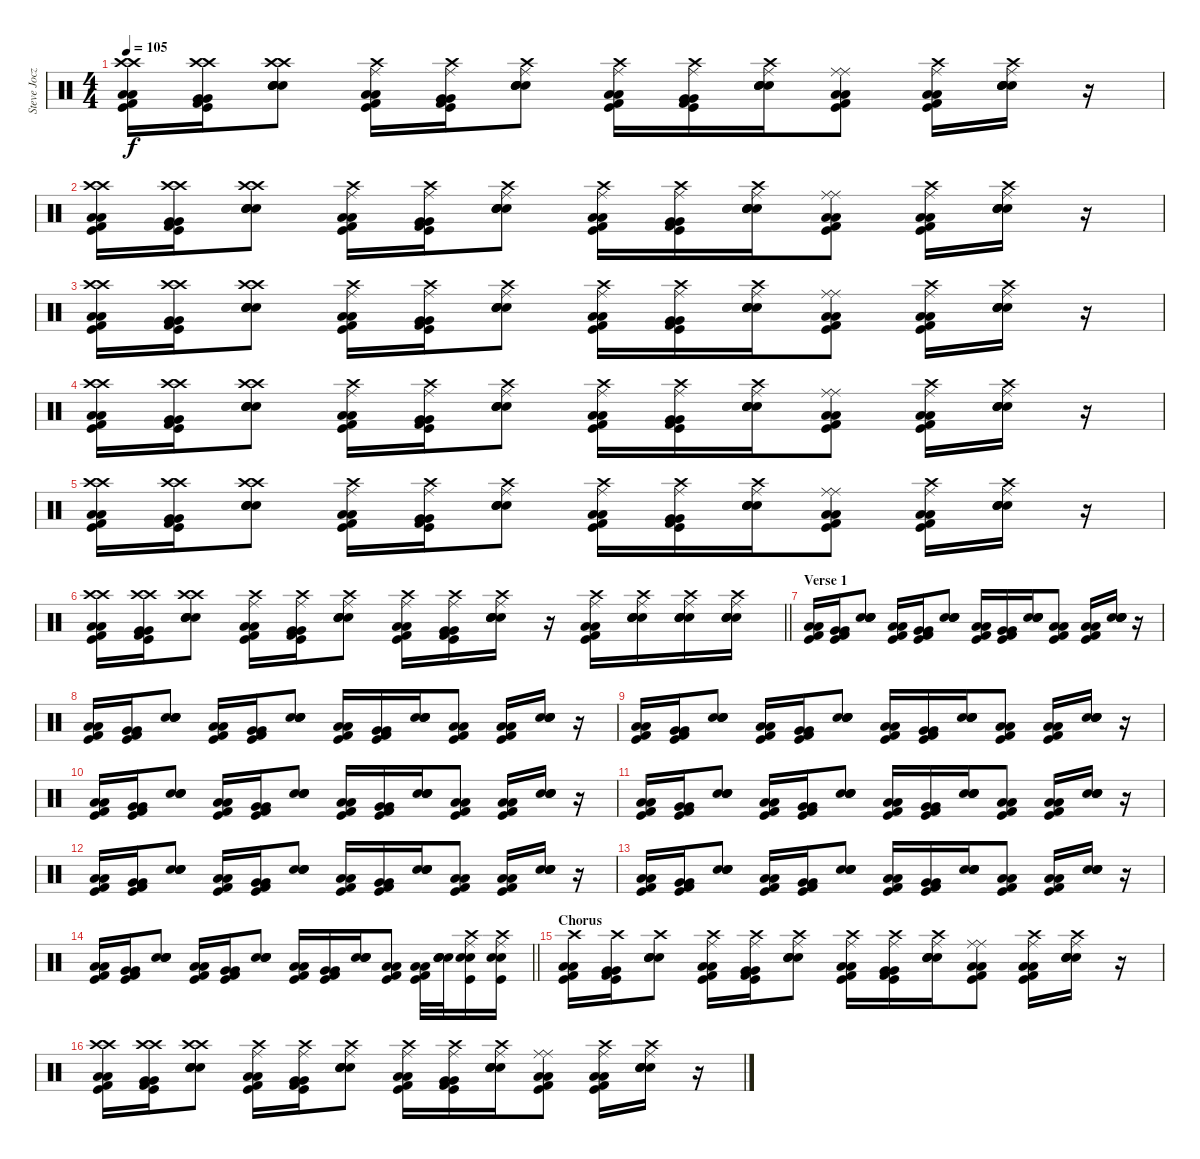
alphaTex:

\track ("Steve Jocz" "Steve Jocz") {instrument percussion}
\staff {score}
\articulation defaults
\ts (4 4)
\tempo 105
\clef neutral
\ks c
("Low Floor Tom (hit)" "Crash high (hit)" "Low Floor Tom (hit)" "Kick (hit)" "Crash high (hit)" "Kick (hit) 2").16{dy f} ("Very Low Tom (hit)" "Crash high (hit)" "Very Low Tom (hit)" "Kick (hit)" "Crash high (hit)" "Kick (hit) 2").16 ("Snare (hit) 2" "Crash high (hit)" "Snare (hit) 2" "Electric Snare (hit)" "Crash high (hit)" "Electric Snare (hit)").8 ("Low Floor Tom (hit)" "Ride (middle)" "Low Floor Tom (hit)" "Kick (hit)" "Crash high (hit)" "Kick (hit) 2").16 ("Very Low Tom (hit)" "Ride (middle)" "Very Low Tom (hit)" "Kick (hit)" "Crash high (hit)" "Kick (hit) 2").16 ("Snare (hit) 2" "Ride (middle)" "Snare (hit) 2" "Electric Snare (hit)" "Crash high (hit)" "Electric Snare (hit)").8 ("Low Floor Tom (hit)" "Ride (middle)" "Low Floor Tom (hit)" "Kick (hit)" "Crash high (hit)" "Kick (hit) 2").16 ("Very Low Tom (hit)" "Ride (middle)" "Very Low Tom (hit)" "Kick (hit)" "Crash high (hit)" "Kick (hit) 2").16 ("Snare (hit) 2" "Ride (middle)" "Snare (hit) 2" "Electric Snare (hit)" "Crash high (hit)" "Electric Snare (hit)").16 ("Low Floor Tom (hit)" "Ride (middle)" "Low Floor Tom (hit)" "Kick (hit)" "Ride (middle)" "Kick (hit) 2").8 ("Low Floor Tom (hit)" "Ride (middle)" "Low Floor Tom (hit)" "Kick (hit)" "Crash high (hit)" "Kick (hit) 2").16 ("Snare (hit) 2" "Ride (middle)" "Snare (hit) 2" "Electric Snare (hit)" "Crash high (hit)" "Electric Snare (hit)").16 r.16 |
("Low Floor Tom (hit)" "Crash high (hit)" "Low Floor Tom (hit)" "Kick (hit)" "Crash high (hit)" "Kick (hit) 2").16 ("Very Low Tom (hit)" "Crash high (hit)" "Very Low Tom (hit)" "Kick (hit)" "Crash high (hit)" "Kick (hit) 2").16 ("Snare (hit) 2" "Crash high (hit)" "Snare (hit) 2" "Electric Snare (hit)" "Crash high (hit)" "Electric Snare (hit)").8 ("Low Floor Tom (hit)" "Ride (middle)" "Low Floor Tom (hit)" "Kick (hit)" "Crash high (hit)" "Kick (hit) 2").16 ("Very Low Tom (hit)" "Ride (middle)" "Very Low Tom (hit)" "Kick (hit)" "Crash high (hit)" "Kick (hit) 2").16 ("Snare (hit) 2" "Ride (middle)" "Snare (hit) 2" "Electric Snare (hit)" "Crash high (hit)" "Electric Snare (hit)").8 ("Low Floor Tom (hit)" "Ride (middle)" "Low Floor Tom (hit)" "Kick (hit)" "Crash high (hit)" "Kick (hit) 2").16 ("Very Low Tom (hit)" "Ride (middle)" "Very Low Tom (hit)" "Kick (hit)" "Crash high (hit)" "Kick (hit) 2").16 ("Snare (hit) 2" "Ride (middle)" "Snare (hit) 2" "Electric Snare (hit)" "Crash high (hit)" "Electric Snare (hit)").16 ("Low Floor Tom (hit)" "Ride (middle)" "Low Floor Tom (hit)" "Kick (hit)" "Ride (middle)" "Kick (hit) 2").8 ("Low Floor Tom (hit)" "Ride (middle)" "Low Floor Tom (hit)" "Kick (hit)" "Crash high (hit)" "Kick (hit) 2").16 ("Snare (hit) 2" "Ride (middle)" "Snare (hit) 2" "Electric Snare (hit)" "Crash high (hit)" "Electric Snare (hit)").16 r.16 |
("Low Floor Tom (hit)" "Crash high (hit)" "Low Floor Tom (hit)" "Kick (hit)" "Crash high (hit)" "Kick (hit) 2").16 ("Very Low Tom (hit)" "Crash high (hit)" "Very Low Tom (hit)" "Kick (hit)" "Crash high (hit)" "Kick (hit) 2").16 ("Snare (hit) 2" "Crash high (hit)" "Snare (hit) 2" "Electric Snare (hit)" "Crash high (hit)" "Electric Snare (hit)").8 ("Low Floor Tom (hit)" "Ride (middle)" "Low Floor Tom (hit)" "Kick (hit)" "Crash high (hit)" "Kick (hit) 2").16 ("Very Low Tom (hit)" "Ride (middle)" "Very Low Tom (hit)" "Kick (hit)" "Crash high (hit)" "Kick (hit) 2").16 ("Snare (hit) 2" "Ride (middle)" "Snare (hit) 2" "Electric Snare (hit)" "Crash high (hit)" "Electric Snare (hit)").8 ("Low Floor Tom (hit)" "Ride (middle)" "Low Floor Tom (hit)" "Kick (hit)" "Crash high (hit)" "Kick (hit) 2").16 ("Very Low Tom (hit)" "Ride (middle)" "Very Low Tom (hit)" "Kick (hit)" "Crash high (hit)" "Kick (hit) 2").16 ("Snare (hit) 2" "Ride (middle)" "Snare (hit) 2" "Electric Snare (hit)" "Crash high (hit)" "Electric Snare (hit)").16 ("Low Floor Tom (hit)" "Ride (middle)" "Low Floor Tom (hit)" "Kick (hit)" "Ride (middle)" "Kick (hit) 2").8 ("Low Floor Tom (hit)" "Ride (middle)" "Low Floor Tom (hit)" "Kick (hit)" "Crash high (hit)" "Kick (hit) 2").16 ("Snare (hit) 2" "Ride (middle)" "Snare (hit) 2" "Electric Snare (hit)" "Crash high (hit)" "Electric Snare (hit)").16 r.16 |
("Low Floor Tom (hit)" "Crash high (hit)" "Low Floor Tom (hit)" "Kick (hit)" "Crash high (hit)" "Kick (hit) 2").16 ("Very Low Tom (hit)" "Crash high (hit)" "Very Low Tom (hit)" "Kick (hit)" "Crash high (hit)" "Kick (hit) 2").16 ("Snare (hit) 2" "Crash high (hit)" "Snare (hit) 2" "Electric Snare (hit)" "Crash high (hit)" "Electric Snare (hit)").8 ("Low Floor Tom (hit)" "Ride (middle)" "Low Floor Tom (hit)" "Kick (hit)" "Crash high (hit)" "Kick (hit) 2").16 ("Very Low Tom (hit)" "Ride (middle)" "Very Low Tom (hit)" "Kick (hit)" "Crash high (hit)" "Kick (hit) 2").16 ("Snare (hit) 2" "Ride (middle)" "Snare (hit) 2" "Electric Snare (hit)" "Crash high (hit)" "Electric Snare (hit)").8 ("Low Floor Tom (hit)" "Ride (middle)" "Low Floor Tom (hit)" "Kick (hit)" "Crash high (hit)" "Kick (hit) 2").16 ("Very Low Tom (hit)" "Ride (middle)" "Very Low Tom (hit)" "Kick (hit)" "Crash high (hit)" "Kick (hit) 2").16 ("Snare (hit) 2" "Ride (middle)" "Snare (hit) 2" "Electric Snare (hit)" "Crash high (hit)" "Electric Snare (hit)").16 ("Low Floor Tom (hit)" "Ride (middle)" "Low Floor Tom (hit)" "Kick (hit)" "Ride (middle)" "Kick (hit) 2").8 ("Low Floor Tom (hit)" "Ride (middle)" "Low Floor Tom (hit)" "Kick (hit)" "Crash high (hit)" "Kick (hit) 2").16 ("Snare (hit) 2" "Ride (middle)" "Snare (hit) 2" "Electric Snare (hit)" "Crash high (hit)" "Electric Snare (hit)").16 r.16 |
("Low Floor Tom (hit)" "Crash high (hit)" "Low Floor Tom (hit)" "Kick (hit)" "Crash high (hit)" "Kick (hit) 2").16 ("Very Low Tom (hit)" "Crash high (hit)" "Very Low Tom (hit)" "Kick (hit)" "Crash high (hit)" "Kick (hit) 2").16 ("Snare (hit) 2" "Crash high (hit)" "Snare (hit) 2" "Electric Snare (hit)" "Crash high (hit)" "Electric Snare (hit)").8 ("Low Floor Tom (hit)" "Ride (middle)" "Low Floor Tom (hit)" "Kick (hit)" "Crash high (hit)" "Kick (hit) 2").16 ("Very Low Tom (hit)" "Ride (middle)" "Very Low Tom (hit)" "Kick (hit)" "Crash high (hit)" "Kick (hit) 2").16 ("Snare (hit) 2" "Ride (middle)" "Snare (hit) 2" "Electric Snare (hit)" "Crash high (hit)" "Electric Snare (hit)").8 ("Low Floor Tom (hit)" "Ride (middle)" "Low Floor Tom (hit)" "Kick (hit)" "Crash high (hit)" "Kick (hit) 2").16 ("Very Low Tom (hit)" "Ride (middle)" "Very Low Tom (hit)" "Kick (hit)" "Crash high (hit)" "Kick (hit) 2").16 ("Snare (hit) 2" "Ride (middle)" "Snare (hit) 2" "Electric Snare (hit)" "Crash high (hit)" "Electric Snare (hit)").16 ("Low Floor Tom (hit)" "Ride (middle)" "Low Floor Tom (hit)" "Kick (hit)" "Ride (middle)" "Kick (hit) 2").8 ("Low Floor Tom (hit)" "Ride (middle)" "Low Floor Tom (hit)" "Kick (hit)" "Crash high (hit)" "Kick (hit) 2").16 ("Snare (hit) 2" "Ride (middle)" "Snare (hit) 2" "Electric Snare (hit)" "Crash high (hit)" "Electric Snare (hit)").16 r.16 |
\barLineRight lightlight
("Low Floor Tom (hit)" "Crash high (hit)" "Low Floor Tom (hit)" "Kick (hit)" "Crash high (hit)" "Kick (hit) 2").16 ("Very Low Tom (hit)" "Crash high (hit)" "Very Low Tom (hit)" "Kick (hit)" "Crash high (hit)" "Kick (hit) 2").16 ("Snare (hit) 2" "Crash high (hit)" "Snare (hit) 2" "Electric Snare (hit)" "Crash high (hit)" "Electric Snare (hit)").8 ("Low Floor Tom (hit)" "Ride (middle)" "Low Floor Tom (hit)" "Kick (hit)" "Crash high (hit)" "Kick (hit) 2").16 ("Very Low Tom (hit)" "Ride (middle)" "Very Low Tom (hit)" "Kick (hit)" "Crash high (hit)" "Kick (hit) 2").16 ("Snare (hit) 2" "Ride (middle)" "Snare (hit) 2" "Electric Snare (hit)" "Crash high (hit)" "Electric Snare (hit)").8 ("Low Floor Tom (hit)" "Ride (middle)" "Low Floor Tom (hit)" "Kick (hit)" "Crash high (hit)" "Kick (hit) 2").16 ("Very Low Tom (hit)" "Ride (middle)" "Very Low Tom (hit)" "Kick (hit)" "Crash high (hit)" "Kick (hit) 2").16 ("Snare (hit) 2" "Ride (middle)" "Snare (hit) 2" "Electric Snare (hit)" "Crash high (hit)" "Electric Snare (hit)").16 r.16 ("Low Floor Tom (hit)" "Ride (middle)" "Low Floor Tom (hit)" "Kick (hit)" "Crash high (hit)" "Kick (hit) 2").16 ("Snare (hit) 2" "Ride (middle)" "Snare (hit) 2" "Electric Snare (hit)" "Crash high (hit)" "Electric Snare (hit)").16 ("Snare (hit) 2" "Ride (middle)" "Snare (hit) 2" "Electric Snare (hit)" "Crash high (hit)" "Electric Snare (hit)").16 ("Snare (hit) 2" "Ride (middle)" "Snare (hit) 2" "Electric Snare (hit)" "Crash high (hit)" "Electric Snare (hit)").16 |
\section ("" "Verse 1")
("Low Floor Tom (hit)" "Low Floor Tom (hit)" "Kick (hit)" "Kick (hit) 2").16 ("Very Low Tom (hit)" "Very Low Tom (hit)" "Kick (hit)" "Kick (hit) 2").16 ("Snare (hit) 2" "Snare (hit) 2" "Electric Snare (hit)" "Electric Snare (hit)").8 ("Low Floor Tom (hit)" "Low Floor Tom (hit)" "Kick (hit)" "Kick (hit) 2").16 ("Very Low Tom (hit)" "Very Low Tom (hit)" "Kick (hit)" "Kick (hit) 2").16 ("Snare (hit) 2" "Snare (hit) 2" "Electric Snare (hit)" "Electric Snare (hit)").8 ("Low Floor Tom (hit)" "Low Floor Tom (hit)" "Kick (hit)" "Kick (hit) 2").16 ("Very Low Tom (hit)" "Very Low Tom (hit)" "Kick (hit)" "Kick (hit) 2").16 ("Snare (hit) 2" "Snare (hit) 2" "Electric Snare (hit)" "Electric Snare (hit)").16 ("Low Floor Tom (hit)" "Low Floor Tom (hit)" "Kick (hit)" "Kick (hit) 2").8 ("Low Floor Tom (hit)" "Low Floor Tom (hit)" "Kick (hit)" "Kick (hit) 2").16 ("Snare (hit) 2" "Snare (hit) 2" "Electric Snare (hit)" "Electric Snare (hit)").16 r.16 |
("Low Floor Tom (hit)" "Low Floor Tom (hit)" "Kick (hit)" "Kick (hit) 2").16 ("Very Low Tom (hit)" "Very Low Tom (hit)" "Kick (hit)" "Kick (hit) 2").16 ("Snare (hit) 2" "Snare (hit) 2" "Electric Snare (hit)" "Electric Snare (hit)").8 ("Low Floor Tom (hit)" "Low Floor Tom (hit)" "Kick (hit)" "Kick (hit) 2").16 ("Very Low Tom (hit)" "Very Low Tom (hit)" "Kick (hit)" "Kick (hit) 2").16 ("Snare (hit) 2" "Snare (hit) 2" "Electric Snare (hit)" "Electric Snare (hit)").8 ("Low Floor Tom (hit)" "Low Floor Tom (hit)" "Kick (hit)" "Kick (hit) 2").16 ("Very Low Tom (hit)" "Very Low Tom (hit)" "Kick (hit)" "Kick (hit) 2").16 ("Snare (hit) 2" "Snare (hit) 2" "Electric Snare (hit)" "Electric Snare (hit)").16 ("Low Floor Tom (hit)" "Low Floor Tom (hit)" "Kick (hit)" "Kick (hit) 2").8 ("Low Floor Tom (hit)" "Low Floor Tom (hit)" "Kick (hit)" "Kick (hit) 2").16 ("Snare (hit) 2" "Snare (hit) 2" "Electric Snare (hit)" "Electric Snare (hit)").16 r.16 |
("Low Floor Tom (hit)" "Low Floor Tom (hit)" "Kick (hit)" "Kick (hit) 2").16 ("Very Low Tom (hit)" "Very Low Tom (hit)" "Kick (hit)" "Kick (hit) 2").16 ("Snare (hit) 2" "Snare (hit) 2" "Electric Snare (hit)" "Electric Snare (hit)").8 ("Low Floor Tom (hit)" "Low Floor Tom (hit)" "Kick (hit)" "Kick (hit) 2").16 ("Very Low Tom (hit)" "Very Low Tom (hit)" "Kick (hit)" "Kick (hit) 2").16 ("Snare (hit) 2" "Snare (hit) 2" "Electric Snare (hit)" "Electric Snare (hit)").8 ("Low Floor Tom (hit)" "Low Floor Tom (hit)" "Kick (hit)" "Kick (hit) 2").16 ("Very Low Tom (hit)" "Very Low Tom (hit)" "Kick (hit)" "Kick (hit) 2").16 ("Snare (hit) 2" "Snare (hit) 2" "Electric Snare (hit)" "Electric Snare (hit)").16 ("Low Floor Tom (hit)" "Low Floor Tom (hit)" "Kick (hit)" "Kick (hit) 2").8 ("Low Floor Tom (hit)" "Low Floor Tom (hit)" "Kick (hit)" "Kick (hit) 2").16 ("Snare (hit) 2" "Snare (hit) 2" "Electric Snare (hit)" "Electric Snare (hit)").16 r.16 |
("Low Floor Tom (hit)" "Low Floor Tom (hit)" "Kick (hit)" "Kick (hit) 2").16 ("Very Low Tom (hit)" "Very Low Tom (hit)" "Kick (hit)" "Kick (hit) 2").16 ("Snare (hit) 2" "Snare (hit) 2" "Electric Snare (hit)" "Electric Snare (hit)").8 ("Low Floor Tom (hit)" "Low Floor Tom (hit)" "Kick (hit)" "Kick (hit) 2").16 ("Very Low Tom (hit)" "Very Low Tom (hit)" "Kick (hit)" "Kick (hit) 2").16 ("Snare (hit) 2" "Snare (hit) 2" "Electric Snare (hit)" "Electric Snare (hit)").8 ("Low Floor Tom (hit)" "Low Floor Tom (hit)" "Kick (hit)" "Kick (hit) 2").16 ("Very Low Tom (hit)" "Very Low Tom (hit)" "Kick (hit)" "Kick (hit) 2").16 ("Snare (hit) 2" "Snare (hit) 2" "Electric Snare (hit)" "Electric Snare (hit)").16 ("Low Floor Tom (hit)" "Low Floor Tom (hit)" "Kick (hit)" "Kick (hit) 2").8 ("Low Floor Tom (hit)" "Low Floor Tom (hit)" "Kick (hit)" "Kick (hit) 2").16 ("Snare (hit) 2" "Snare (hit) 2" "Electric Snare (hit)" "Electric Snare (hit)").16 r.16 |
("Low Floor Tom (hit)" "Low Floor Tom (hit)" "Kick (hit)" "Kick (hit) 2").16 ("Very Low Tom (hit)" "Very Low Tom (hit)" "Kick (hit)" "Kick (hit) 2").16 ("Snare (hit) 2" "Snare (hit) 2" "Electric Snare (hit)" "Electric Snare (hit)").8 ("Low Floor Tom (hit)" "Low Floor Tom (hit)" "Kick (hit)" "Kick (hit) 2").16 ("Very Low Tom (hit)" "Very Low Tom (hit)" "Kick (hit)" "Kick (hit) 2").16 ("Snare (hit) 2" "Snare (hit) 2" "Electric Snare (hit)" "Electric Snare (hit)").8 ("Low Floor Tom (hit)" "Low Floor Tom (hit)" "Kick (hit)" "Kick (hit) 2").16 ("Very Low Tom (hit)" "Very Low Tom (hit)" "Kick (hit)" "Kick (hit) 2").16 ("Snare (hit) 2" "Snare (hit) 2" "Electric Snare (hit)" "Electric Snare (hit)").16 ("Low Floor Tom (hit)" "Low Floor Tom (hit)" "Kick (hit)" "Kick (hit) 2").8 ("Low Floor Tom (hit)" "Low Floor Tom (hit)" "Kick (hit)" "Kick (hit) 2").16 ("Snare (hit) 2" "Snare (hit) 2" "Electric Snare (hit)" "Electric Snare (hit)").16 r.16 |
("Low Floor Tom (hit)" "Low Floor Tom (hit)" "Kick (hit)" "Kick (hit) 2").16 ("Very Low Tom (hit)" "Very Low Tom (hit)" "Kick (hit)" "Kick (hit) 2").16 ("Snare (hit) 2" "Snare (hit) 2" "Electric Snare (hit)" "Electric Snare (hit)").8 ("Low Floor Tom (hit)" "Low Floor Tom (hit)" "Kick (hit)" "Kick (hit) 2").16 ("Very Low Tom (hit)" "Very Low Tom (hit)" "Kick (hit)" "Kick (hit) 2").16 ("Snare (hit) 2" "Snare (hit) 2" "Electric Snare (hit)" "Electric Snare (hit)").8 ("Low Floor Tom (hit)" "Low Floor Tom (hit)" "Kick (hit)" "Kick (hit) 2").16 ("Very Low Tom (hit)" "Very Low Tom (hit)" "Kick (hit)" "Kick (hit) 2").16 ("Snare (hit) 2" "Snare (hit) 2" "Electric Snare (hit)" "Electric Snare (hit)").16 ("Low Floor Tom (hit)" "Low Floor Tom (hit)" "Kick (hit)" "Kick (hit) 2").8 ("Low Floor Tom (hit)" "Low Floor Tom (hit)" "Kick (hit)" "Kick (hit) 2").16 ("Snare (hit) 2" "Snare (hit) 2" "Electric Snare (hit)" "Electric Snare (hit)").16 r.16 |
("Low Floor Tom (hit)" "Low Floor Tom (hit)" "Kick (hit)" "Kick (hit) 2").16 ("Very Low Tom (hit)" "Very Low Tom (hit)" "Kick (hit)" "Kick (hit) 2").16 ("Snare (hit) 2" "Snare (hit) 2" "Electric Snare (hit)" "Electric Snare (hit)").8 ("Low Floor Tom (hit)" "Low Floor Tom (hit)" "Kick (hit)" "Kick (hit) 2").16 ("Very Low Tom (hit)" "Very Low Tom (hit)" "Kick (hit)" "Kick (hit) 2").16 ("Snare (hit) 2" "Snare (hit) 2" "Electric Snare (hit)" "Electric Snare (hit)").8 ("Low Floor Tom (hit)" "Low Floor Tom (hit)" "Kick (hit)" "Kick (hit) 2").16 ("Very Low Tom (hit)" "Very Low Tom (hit)" "Kick (hit)" "Kick (hit) 2").16 ("Snare (hit) 2" "Snare (hit) 2" "Electric Snare (hit)" "Electric Snare (hit)").16 ("Low Floor Tom (hit)" "Low Floor Tom (hit)" "Kick (hit)" "Kick (hit) 2").8 ("Low Floor Tom (hit)" "Low Floor Tom (hit)" "Kick (hit)" "Kick (hit) 2").16 ("Snare (hit) 2" "Snare (hit) 2" "Electric Snare (hit)" "Electric Snare (hit)").16 r.16 |
\barLineRight lightlight
("Low Floor Tom (hit)" "Low Floor Tom (hit)" "Kick (hit)" "Kick (hit) 2").16 ("Very Low Tom (hit)" "Very Low Tom (hit)" "Kick (hit)" "Kick (hit) 2").16 ("Snare (hit) 2" "Snare (hit) 2" "Electric Snare (hit)" "Electric Snare (hit)").8 ("Low Floor Tom (hit)" "Low Floor Tom (hit)" "Kick (hit)" "Kick (hit) 2").16 ("Very Low Tom (hit)" "Very Low Tom (hit)" "Kick (hit)" "Kick (hit) 2").16 ("Snare (hit) 2" "Snare (hit) 2" "Electric Snare (hit)" "Electric Snare (hit)").8 ("Low Floor Tom (hit)" "Low Floor Tom (hit)" "Kick (hit)" "Kick (hit) 2").16 ("Very Low Tom (hit)" "Very Low Tom (hit)" "Kick (hit)" "Kick (hit) 2").16 ("Snare (hit) 2" "Snare (hit) 2" "Electric Snare (hit)" "Electric Snare (hit)").16 ("Low Floor Tom (hit)" "Low Floor Tom (hit)" "Kick (hit)" "Kick (hit) 2").8 ("Low Floor Tom (hit)" "Low Floor Tom (hit)" "Kick (hit)" "Kick (hit) 2").32 ("Snare (hit) 2" "Snare (hit) 2" "Electric Snare (hit)" "Electric Snare (hit)").32 ("Snare (hit) 2" "Kick (hit)" "Electric Snare (hit)" "Crash high (hit)" "Ride (middle)").16 ("Snare (hit) 2" "Kick (hit)" "Electric Snare (hit)" "Crash high (hit)" "Ride (middle)").16 |
\section ("" "Chorus ")
("Low Floor Tom (hit)" "Crash high (hit)" "Low Floor Tom (hit)" "Kick (hit)" "Kick (hit) 2").16 ("Very Low Tom (hit)" "Crash high (hit)" "Very Low Tom (hit)" "Kick (hit)" "Kick (hit) 2").16 ("Snare (hit) 2" "Crash high (hit)" "Snare (hit) 2" "Electric Snare (hit)" "Electric Snare (hit)").8 ("Low Floor Tom (hit)" "Ride (middle)" "Low Floor Tom (hit)" "Kick (hit)" "Crash high (hit)" "Kick (hit) 2").16 ("Very Low Tom (hit)" "Ride (middle)" "Very Low Tom (hit)" "Kick (hit)" "Crash high (hit)" "Kick (hit) 2").16 ("Snare (hit) 2" "Ride (middle)" "Snare (hit) 2" "Electric Snare (hit)" "Crash high (hit)" "Electric Snare (hit)").8 ("Low Floor Tom (hit)" "Ride (middle)" "Low Floor Tom (hit)" "Kick (hit)" "Crash high (hit)" "Kick (hit) 2").16 ("Very Low Tom (hit)" "Ride (middle)" "Very Low Tom (hit)" "Kick (hit)" "Crash high (hit)" "Kick (hit) 2").16 ("Snare (hit) 2" "Ride (middle)" "Snare (hit) 2" "Electric Snare (hit)" "Crash high (hit)" "Electric Snare (hit)").16 ("Low Floor Tom (hit)" "Ride (middle)" "Low Floor Tom (hit)" "Kick (hit)" "Ride (middle)" "Kick (hit) 2").8 ("Low Floor Tom (hit)" "Ride (middle)" "Low Floor Tom (hit)" "Kick (hit)" "Crash high (hit)" "Kick (hit) 2").16 ("Snare (hit) 2" "Ride (middle)" "Snare (hit) 2" "Electric Snare (hit)" "Crash high (hit)" "Electric Snare (hit)").16 r.16 |
("Low Floor Tom (hit)" "Crash high (hit)" "Low Floor Tom (hit)" "Kick (hit)" "Crash high (hit)" "Kick (hit) 2").16 ("Very Low Tom (hit)" "Crash high (hit)" "Very Low Tom (hit)" "Kick (hit)" "Crash high (hit)" "Kick (hit) 2").16 ("Snare (hit) 2" "Crash high (hit)" "Snare (hit) 2" "Electric Snare (hit)" "Crash high (hit)" "Electric Snare (hit)").8 ("Low Floor Tom (hit)" "Ride (middle)" "Low Floor Tom (hit)" "Kick (hit)" "Crash high (hit)" "Kick (hit) 2").16 ("Very Low Tom (hit)" "Ride (middle)" "Very Low Tom (hit)" "Kick (hit)" "Crash high (hit)" "Kick (hit) 2").16 ("Snare (hit) 2" "Ride (middle)" "Snare (hit) 2" "Electric Snare (hit)" "Crash high (hit)" "Electric Snare (hit)").8 ("Low Floor Tom (hit)" "Ride (middle)" "Low Floor Tom (hit)" "Kick (hit)" "Crash high (hit)" "Kick (hit) 2").16 ("Very Low Tom (hit)" "Ride (middle)" "Very Low Tom (hit)" "Kick (hit)" "Crash high (hit)" "Kick (hit) 2").16 ("Snare (hit) 2" "Ride (middle)" "Snare (hit) 2" "Electric Snare (hit)" "Crash high (hit)" "Electric Snare (hit)").16 ("Low Floor Tom (hit)" "Ride (middle)" "Low Floor Tom (hit)" "Kick (hit)" "Ride (middle)" "Kick (hit) 2").8 ("Low Floor Tom (hit)" "Ride (middle)" "Low Floor Tom (hit)" "Kick (hit)" "Crash high (hit)" "Kick (hit) 2").16 ("Snare (hit) 2" "Ride (middle)" "Snare (hit) 2" "Electric Snare (hit)" "Crash high (hit)" "Electric Snare (hit)").16 r.16
